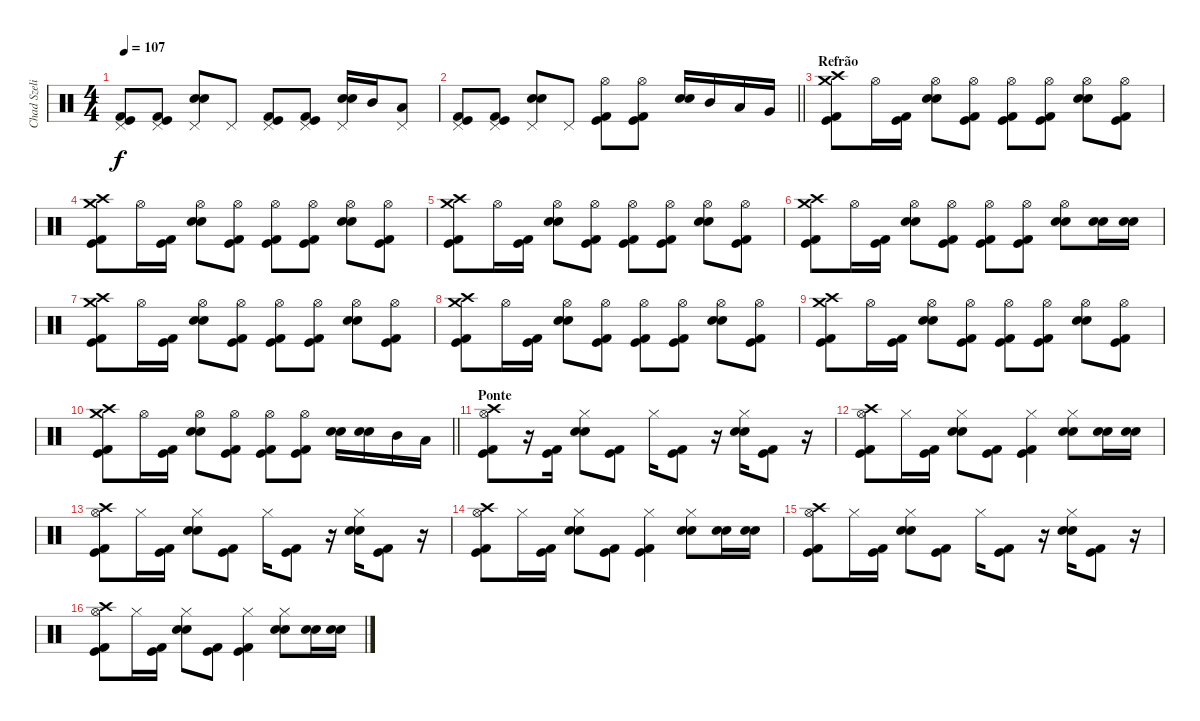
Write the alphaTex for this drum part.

\track ("Chad Szeliga" "Chad Szeli") {instrument percussion}
\staff {score}
\articulation defaults
\ts (4 4)
\tempo 107
\clef neutral
\ks c
("Kick (hit) 2" "Kick (hit)" "Pedal Hi-Hat (hit)").8{dy f} ("Kick (hit) 2" "Kick (hit)" "Pedal Hi-Hat (hit)").8 ("Snare (hit) 2" "Snare (hit) 2" "Pedal Hi-Hat (hit)").8 "Pedal Hi-Hat (hit)".8 ("Kick (hit) 2" "Kick (hit)" "Pedal Hi-Hat (hit)").8 ("Kick (hit) 2" "Kick (hit)" "Pedal Hi-Hat (hit)").8 ("Snare (hit) 2" "Snare (hit) 2" "Pedal Hi-Hat (hit)").16 "Mid Tom (hit)".16 ("Low Tom (hit)" "Pedal Hi-Hat (hit)").8 |
\barLineRight lightlight
("Kick (hit) 2" "Kick (hit)" "Pedal Hi-Hat (hit)").8 ("Kick (hit) 2" "Kick (hit)" "Pedal Hi-Hat (hit)").8 ("Snare (hit) 2" "Snare (hit) 2" "Pedal Hi-Hat (hit)").8 "Pedal Hi-Hat (hit)".8 ("Kick (hit) 2" "Kick (hit)" "Hi-Hat (open)").8 ("Kick (hit) 2" "Kick (hit)" "Hi-Hat (open)").8 ("Snare (hit) 2" "Snare (hit) 2").16 "Mid Tom (hit)".16 "Low Tom (hit)".16 "Very Low Tom (hit)".16 |
\section ("" "Refrão")
("Crash high (hit)" "Kick (hit) 2" "Kick (hit)" "Crash medium (hit)").8 "Hi-Hat (open)".16 ("Kick (hit) 2" "Kick (hit)").16 ("Snare (hit) 2" "Snare (hit) 2" "Hi-Hat (open)").8 ("Kick (hit) 2" "Kick (hit)" "Hi-Hat (open)").8 ("Kick (hit) 2" "Kick (hit)" "Hi-Hat (open)").8 ("Kick (hit) 2" "Kick (hit)" "Hi-Hat (open)").8 ("Snare (hit) 2" "Snare (hit) 2" "Hi-Hat (open)").8 ("Kick (hit) 2" "Kick (hit)" "Hi-Hat (open)").8 |
("Crash high (hit)" "Kick (hit) 2" "Kick (hit)" "Crash medium (hit)").8 "Hi-Hat (open)".16 ("Kick (hit) 2" "Kick (hit)").16 ("Snare (hit) 2" "Snare (hit) 2" "Hi-Hat (open)").8 ("Kick (hit) 2" "Kick (hit)" "Hi-Hat (open)").8 ("Kick (hit) 2" "Kick (hit)" "Hi-Hat (open)").8 ("Kick (hit) 2" "Kick (hit)" "Hi-Hat (open)").8 ("Snare (hit) 2" "Snare (hit) 2" "Hi-Hat (open)").8 ("Kick (hit) 2" "Kick (hit)" "Hi-Hat (open)").8 |
("Crash high (hit)" "Kick (hit) 2" "Kick (hit)" "Crash medium (hit)").8 "Hi-Hat (open)".16 ("Kick (hit) 2" "Kick (hit)").16 ("Snare (hit) 2" "Snare (hit) 2" "Hi-Hat (open)").8 ("Kick (hit) 2" "Kick (hit)" "Hi-Hat (open)").8 ("Kick (hit) 2" "Kick (hit)" "Hi-Hat (open)").8 ("Kick (hit) 2" "Kick (hit)" "Hi-Hat (open)").8 ("Snare (hit) 2" "Snare (hit) 2" "Hi-Hat (open)").8 ("Kick (hit) 2" "Kick (hit)" "Hi-Hat (open)").8 |
("Crash high (hit)" "Kick (hit) 2" "Kick (hit)" "Crash medium (hit)").8 "Hi-Hat (open)".16 ("Kick (hit) 2" "Kick (hit)").16 ("Snare (hit) 2" "Snare (hit) 2" "Hi-Hat (open)").8 ("Kick (hit) 2" "Kick (hit)" "Hi-Hat (open)").8 ("Kick (hit) 2" "Kick (hit)" "Hi-Hat (open)").8 ("Kick (hit) 2" "Kick (hit)" "Hi-Hat (open)").8 ("Snare (hit) 2" "Snare (hit) 2" "Hi-Hat (open)").8 ("Snare (hit) 2" "Snare (hit) 2").16 ("Snare (hit) 2" "Snare (hit) 2").16 |
("Crash high (hit)" "Kick (hit) 2" "Kick (hit)" "Crash medium (hit)").8 "Hi-Hat (open)".16 ("Kick (hit) 2" "Kick (hit)").16 ("Snare (hit) 2" "Snare (hit) 2" "Hi-Hat (open)").8 ("Kick (hit) 2" "Kick (hit)" "Hi-Hat (open)").8 ("Kick (hit) 2" "Kick (hit)" "Hi-Hat (open)").8 ("Kick (hit) 2" "Kick (hit)" "Hi-Hat (open)").8 ("Snare (hit) 2" "Snare (hit) 2" "Hi-Hat (open)").8 ("Kick (hit) 2" "Kick (hit)" "Hi-Hat (open)").8 |
("Crash high (hit)" "Kick (hit) 2" "Kick (hit)" "Crash medium (hit)").8 "Hi-Hat (open)".16 ("Kick (hit) 2" "Kick (hit)").16 ("Snare (hit) 2" "Snare (hit) 2" "Hi-Hat (open)").8 ("Kick (hit) 2" "Kick (hit)" "Hi-Hat (open)").8 ("Kick (hit) 2" "Kick (hit)" "Hi-Hat (open)").8 ("Kick (hit) 2" "Kick (hit)" "Hi-Hat (open)").8 ("Snare (hit) 2" "Snare (hit) 2" "Hi-Hat (open)").8 ("Kick (hit) 2" "Kick (hit)" "Hi-Hat (open)").8 |
("Crash high (hit)" "Kick (hit) 2" "Kick (hit)" "Crash medium (hit)").8 "Hi-Hat (open)".16 ("Kick (hit) 2" "Kick (hit)").16 ("Snare (hit) 2" "Snare (hit) 2" "Hi-Hat (open)").8 ("Kick (hit) 2" "Kick (hit)" "Hi-Hat (open)").8 ("Kick (hit) 2" "Kick (hit)" "Hi-Hat (open)").8 ("Kick (hit) 2" "Kick (hit)" "Hi-Hat (open)").8 ("Snare (hit) 2" "Snare (hit) 2" "Hi-Hat (open)").8 ("Kick (hit) 2" "Kick (hit)" "Hi-Hat (open)").8 |
\barLineRight lightlight
("Crash high (hit)" "Kick (hit) 2" "Kick (hit)" "Crash medium (hit)").8 "Hi-Hat (open)".16 ("Kick (hit) 2" "Kick (hit)").16 ("Snare (hit) 2" "Snare (hit) 2" "Hi-Hat (open)").8 ("Kick (hit) 2" "Kick (hit)" "Hi-Hat (open)").8 ("Kick (hit) 2" "Kick (hit)" "Hi-Hat (open)").8 ("Kick (hit) 2" "Kick (hit)" "Hi-Hat (open)").8 ("Snare (hit) 2" "Snare (hit) 2").16 ("Snare (hit) 2" "Snare (hit) 2").16 "Mid Tom (hit)".16 "Low Tom (hit)".16 |
\section ("" "Ponte")
("Crash high (hit)" "Kick (hit) 2" "Kick (hit)" "Hi-Hat (open)").8 r.16 ("Kick (hit) 2" "Kick (hit)").16{beam Down} ("Snare (hit) 2" "Snare (hit) 2" "Hi-Hat (closed)").8 ("Kick (hit) 2" "Kick (hit)").8 "Hi-Hat (closed)".16 ("Kick (hit) 2" "Kick (hit)").8 r.16 ("Snare (hit) 2" "Snare (hit) 2" "Hi-Hat (closed)").16 ("Kick (hit) 2" "Kick (hit)").8 r.16 |
("Crash high (hit)" "Kick (hit) 2" "Kick (hit)" "Hi-Hat (open)").8 "Hi-Hat (closed)".16 ("Kick (hit) 2" "Kick (hit)").16 ("Snare (hit) 2" "Snare (hit) 2" "Hi-Hat (closed)").8 ("Kick (hit) 2" "Kick (hit)").8 ("Kick (hit) 2" "Kick (hit)" "Hi-Hat (closed)").4 ("Snare (hit) 2" "Snare (hit) 2" "Hi-Hat (closed)").8 ("Snare (hit) 2" "Snare (hit) 2").16 ("Snare (hit) 2" "Snare (hit) 2").16 |
("Crash high (hit)" "Kick (hit) 2" "Kick (hit)" "Hi-Hat (open)").8 "Hi-Hat (closed)".16 ("Kick (hit) 2" "Kick (hit)").16 ("Snare (hit) 2" "Snare (hit) 2" "Hi-Hat (closed)").8 ("Kick (hit) 2" "Kick (hit)").8 "Hi-Hat (closed)".16 ("Kick (hit) 2" "Kick (hit)").8 r.16 ("Snare (hit) 2" "Snare (hit) 2" "Hi-Hat (closed)").16 ("Kick (hit) 2" "Kick (hit)").8 r.16 |
("Crash high (hit)" "Kick (hit) 2" "Kick (hit)" "Hi-Hat (open)").8 "Hi-Hat (closed)".16 ("Kick (hit) 2" "Kick (hit)").16 ("Snare (hit) 2" "Snare (hit) 2" "Hi-Hat (closed)").8 ("Kick (hit) 2" "Kick (hit)").8 ("Kick (hit) 2" "Kick (hit)" "Hi-Hat (closed)").4 ("Snare (hit) 2" "Snare (hit) 2" "Hi-Hat (closed)").8 ("Snare (hit) 2" "Snare (hit) 2").16 ("Snare (hit) 2" "Snare (hit) 2").16 |
("Crash high (hit)" "Kick (hit) 2" "Kick (hit)" "Hi-Hat (open)").8 "Hi-Hat (closed)".16 ("Kick (hit) 2" "Kick (hit)").16 ("Snare (hit) 2" "Snare (hit) 2" "Hi-Hat (closed)").8 ("Kick (hit) 2" "Kick (hit)").8 "Hi-Hat (closed)".16 ("Kick (hit) 2" "Kick (hit)").8 r.16 ("Snare (hit) 2" "Snare (hit) 2" "Hi-Hat (closed)").16 ("Kick (hit) 2" "Kick (hit)").8 r.16 |
("Crash high (hit)" "Kick (hit) 2" "Kick (hit)" "Hi-Hat (open)").8 "Hi-Hat (closed)".16 ("Kick (hit) 2" "Kick (hit)").16 ("Snare (hit) 2" "Snare (hit) 2" "Hi-Hat (closed)").8 ("Kick (hit) 2" "Kick (hit)").8 ("Kick (hit) 2" "Kick (hit)" "Hi-Hat (closed)").4 ("Snare (hit) 2" "Snare (hit) 2" "Hi-Hat (closed)").8 ("Snare (hit) 2" "Snare (hit) 2").16 ("Snare (hit) 2" "Snare (hit) 2").16
